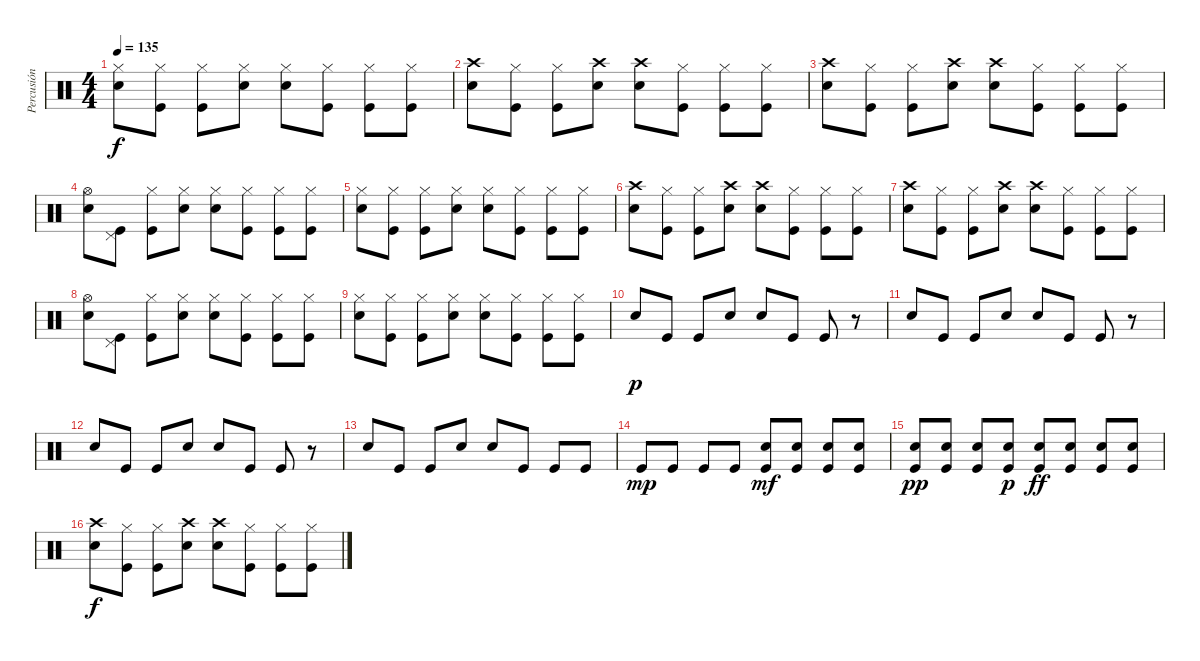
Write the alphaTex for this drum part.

\track ("Percusión" "Percusión") {instrument percussion}
\staff {score}
\articulation defaults
\ts (4 4)
\tempo 135
\clef neutral
\ks c
("Hi-Hat (closed)" "Snare (hit) 2").8{dy f} ("Hi-Hat (closed)" "Kick (hit)").8 ("Hi-Hat (closed)" "Kick (hit)").8 ("Hi-Hat (closed)" "Snare (hit) 2").8 ("Hi-Hat (closed)" "Snare (hit) 2").8 ("Hi-Hat (closed)" "Kick (hit)").8 ("Hi-Hat (closed)" "Kick (hit)").8 ("Hi-Hat (closed)" "Kick (hit)").8 |
("Crash high (hit)" "Snare (hit) 2").8 ("Hi-Hat (closed)" "Kick (hit)").8 ("Hi-Hat (closed)" "Kick (hit)").8 ("Crash high (hit)" "Snare (hit) 2").8 ("Crash high (hit)" "Snare (hit) 2").8 ("Hi-Hat (closed)" "Kick (hit)").8 ("Hi-Hat (closed)" "Kick (hit)").8 ("Hi-Hat (closed)" "Kick (hit)").8 |
("Crash high (hit)" "Snare (hit) 2").8 ("Hi-Hat (closed)" "Kick (hit)").8 ("Hi-Hat (closed)" "Kick (hit)").8 ("Crash high (hit)" "Snare (hit) 2").8 ("Crash high (hit)" "Snare (hit) 2").8 ("Hi-Hat (closed)" "Kick (hit)").8 ("Hi-Hat (closed)" "Kick (hit)").8 ("Hi-Hat (closed)" "Kick (hit)").8 |
("Hi-Hat (open)" "Snare (hit) 2").8 ("Pedal Hi-Hat (hit)" "Kick (hit)").8 ("Hi-Hat (closed)" "Kick (hit)").8 ("Hi-Hat (closed)" "Snare (hit) 2").8 ("Hi-Hat (closed)" "Snare (hit) 2").8 ("Hi-Hat (closed)" "Kick (hit)").8 ("Hi-Hat (closed)" "Kick (hit)").8 ("Hi-Hat (closed)" "Kick (hit)").8 |
("Hi-Hat (closed)" "Snare (hit) 2").8 ("Hi-Hat (closed)" "Kick (hit)").8 ("Hi-Hat (closed)" "Kick (hit)").8 ("Hi-Hat (closed)" "Snare (hit) 2").8 ("Hi-Hat (closed)" "Snare (hit) 2").8 ("Hi-Hat (closed)" "Kick (hit)").8 ("Hi-Hat (closed)" "Kick (hit)").8 ("Hi-Hat (closed)" "Kick (hit)").8 |
("Crash high (hit)" "Snare (hit) 2").8 ("Hi-Hat (closed)" "Kick (hit)").8 ("Hi-Hat (closed)" "Kick (hit)").8 ("Crash high (hit)" "Snare (hit) 2").8 ("Crash high (hit)" "Snare (hit) 2").8 ("Hi-Hat (closed)" "Kick (hit)").8 ("Hi-Hat (closed)" "Kick (hit)").8 ("Hi-Hat (closed)" "Kick (hit)").8 |
("Crash high (hit)" "Snare (hit) 2").8 ("Hi-Hat (closed)" "Kick (hit)").8 ("Hi-Hat (closed)" "Kick (hit)").8 ("Crash high (hit)" "Snare (hit) 2").8 ("Crash high (hit)" "Snare (hit) 2").8 ("Hi-Hat (closed)" "Kick (hit)").8 ("Hi-Hat (closed)" "Kick (hit)").8 ("Hi-Hat (closed)" "Kick (hit)").8 |
("Hi-Hat (open)" "Snare (hit) 2").8 ("Pedal Hi-Hat (hit)" "Kick (hit)").8 ("Hi-Hat (closed)" "Kick (hit)").8 ("Hi-Hat (closed)" "Snare (hit) 2").8 ("Hi-Hat (closed)" "Snare (hit) 2").8 ("Hi-Hat (closed)" "Kick (hit)").8 ("Hi-Hat (closed)" "Kick (hit)").8 ("Hi-Hat (closed)" "Kick (hit)").8 |
("Hi-Hat (closed)" "Snare (hit) 2").8 ("Hi-Hat (closed)" "Kick (hit)").8 ("Hi-Hat (closed)" "Kick (hit)").8 ("Hi-Hat (closed)" "Snare (hit) 2").8 ("Hi-Hat (closed)" "Snare (hit) 2").8 ("Hi-Hat (closed)" "Kick (hit)").8 ("Hi-Hat (closed)" "Kick (hit)").8 ("Hi-Hat (closed)" "Kick (hit)").8 |
"Snare (hit) 2".8{dy p} "Kick (hit)".8 "Kick (hit)".8 "Snare (hit) 2".8 "Snare (hit) 2".8 "Kick (hit)".8 "Kick (hit)".8 r.8 |
"Snare (hit) 2".8 "Kick (hit)".8 "Kick (hit)".8 "Snare (hit) 2".8 "Snare (hit) 2".8 "Kick (hit)".8 "Kick (hit)".8 r.8 |
"Snare (hit) 2".8 "Kick (hit)".8 "Kick (hit)".8 "Snare (hit) 2".8 "Snare (hit) 2".8 "Kick (hit)".8 "Kick (hit)".8 r.8 |
"Snare (hit) 2".8 "Kick (hit)".8 "Kick (hit)".8 "Snare (hit) 2".8 "Snare (hit) 2".8 "Kick (hit)".8 "Kick (hit)".8 "Kick (hit)".8 |
"Kick (hit)".8{dy mp} "Kick (hit)".8 "Kick (hit)".8 "Kick (hit)".8 ("Snare (hit) 2" "Kick (hit)").8{dy mf} ("Snare (hit) 2" "Kick (hit)").8 ("Snare (hit) 2" "Kick (hit)").8 ("Snare (hit) 2" "Kick (hit)").8 |
("Snare (hit) 2" "Kick (hit)").8{dy pp} ("Snare (hit) 2" "Kick (hit)").8 ("Snare (hit) 2" "Kick (hit)").8 ("Snare (hit) 2" "Kick (hit)").8{dy p} ("Snare (hit) 2" "Kick (hit)").8{dy ff} ("Snare (hit) 2" "Kick (hit)").8 ("Snare (hit) 2" "Kick (hit)").8 ("Snare (hit) 2" "Kick (hit)").8 |
("Crash high (hit)" "Snare (hit) 2").8{dy f} ("Hi-Hat (closed)" "Kick (hit)").8 ("Hi-Hat (closed)" "Kick (hit)").8 ("Crash high (hit)" "Snare (hit) 2").8 ("Crash high (hit)" "Snare (hit) 2").8 ("Hi-Hat (closed)" "Kick (hit)").8 ("Hi-Hat (closed)" "Kick (hit)").8 ("Hi-Hat (closed)" "Kick (hit)").8
